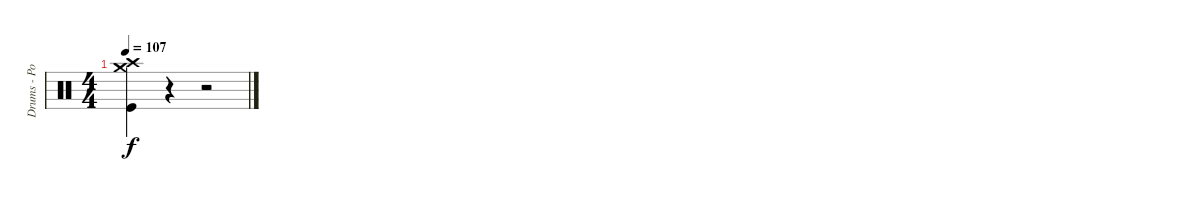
\track ("Drums - Possibly M. Shinoda" "Drums - Po") {instrument percussion}
\staff {score}
\articulation defaults
\ts (4 4)
\tempo 107
\clef neutral
\ks c
("Crash high (hit)" "Crash medium (hit)" "Kick (hit)").4{dy f} r.4 r.2
